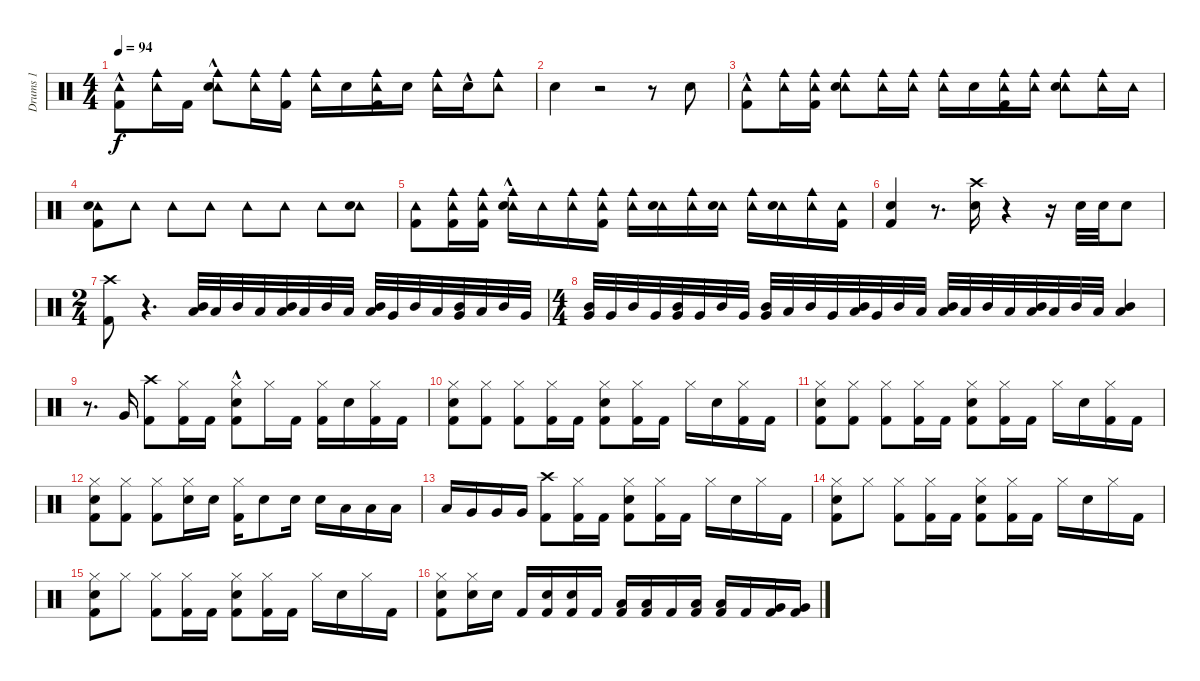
\track ("Drums 1" "Drums 1") {instrument percussion}
\staff {score}
\articulation defaults
\ts (4 4)
\tempo 94
\clef neutral
\ks c
("Tambourine (hit)" "Kick (hit) 2"{hac}).8{dy f} ("Cowbell medium (hit)" "Tambourine (hit)").16 "Kick (hit) 2".16 ("Cowbell medium (hit)" "Tambourine (hit)" "Snare (hit) 2"{hac}).8 ("Cowbell medium (hit)" "Tambourine (hit)").16 ("Cowbell medium (hit)" "Kick (hit) 2").16 ("Cowbell medium (hit)" "Tambourine (hit)").16 "Electric Snare (hit)".16 ("Cowbell medium (hit)" "Tambourine (hit)" "Kick (hit) 2").16 "Snare (hit) 2".16 ("Cowbell medium (hit)" "Tambourine (hit)").16 "Snare (hit) 2"{hac}.16 ("Cowbell medium (hit)" "Tambourine (hit)").8 |
"Electric Snare (hit)".4 r.2 r.8 "Snare (hit) 2".8 |
("Tambourine (hit)" "Kick (hit) 2"{hac}).8 ("Cowbell medium (hit)" "Tambourine (hit)").16 ("Cowbell medium (hit)" "Tambourine (hit)" "Kick (hit) 2").16 ("Cowbell medium (hit)" "Tambourine (hit)" "Snare (hit) 2").8 ("Cowbell medium (hit)" "Tambourine (hit)").16 ("Cowbell medium (hit)" "Tambourine (hit)").16 ("Cowbell medium (hit)" "Tambourine (hit)").16 "Snare (hit) 2".16 ("Cowbell medium (hit)" "Tambourine (hit)" "Kick (hit) 2").16 ("Cowbell medium (hit)" "Tambourine (hit)").16 ("Cowbell medium (hit)" "Tambourine (hit)" "Snare (hit) 2").8 ("Cowbell medium (hit)" "Tambourine (hit)").16 "Tambourine (hit)".16 |
("Tambourine (hit)" "Kick (hit) 2" "Snare (hit) 2").8 "Tambourine (hit)".8 "Tambourine (hit)".8 "Tambourine (hit)".8 "Tambourine (hit)".8 "Tambourine (hit)".8 "Tambourine (hit)".8 ("Tambourine (hit)" "Snare (hit) 2").8 |
("Tambourine (hit)" "Kick (hit) 2").8 ("Cowbell medium (hit)" "Tambourine (hit)" "Kick (hit) 2").16 ("Cowbell medium (hit)" "Tambourine (hit)" "Kick (hit) 2").16 ("Cowbell medium (hit)" "Tambourine (hit)" "Snare (hit) 2"{hac}).16 "Tambourine (hit)".16 ("Cowbell medium (hit)" "Tambourine (hit)").16 ("Cowbell medium (hit)" "Tambourine (hit)" "Kick (hit) 2").16 ("Cowbell medium (hit)" "Tambourine (hit)").16 ("Tambourine (hit)" "Snare (hit) 2").16 ("Cowbell medium (hit)" "Tambourine (hit)").16 ("Tambourine (hit)" "Snare (hit) 2").16 ("Cowbell medium (hit)" "Tambourine (hit)").16 ("Tambourine (hit)" "Snare (hit) 2").16 ("Cowbell medium (hit)" "Tambourine (hit)").16 ("Tambourine (hit)" "Kick (hit) 2").16 |
("Kick (hit) 2" "Snare (hit) 2").4 r.8{d} ("Crash high (hit)" "Snare (hit) 2").16 r.4 r.16 "Snare (hit) 2".32 "Snare (hit) 2".32 "Electric Snare (hit)".8 |
\ts (2 4)
("Kick (hit) 2" "Crash high (hit)").8 r.4{d} ("Mid Tom (hit)" "Low Tom (hit)").32 "Low Tom (hit)".32 "Mid Tom (hit)".32 "Low Tom (hit)".32 ("Mid Tom (hit)" "Low Tom (hit)").32 "Low Tom (hit)".32 "Mid Tom (hit)".32 "Low Tom (hit)".32 ("Mid Tom (hit)" "Low Tom (hit)").32 "Very Low Tom (hit)".32 "Mid Tom (hit)".32 "Low Tom (hit)".32 ("Mid Tom (hit)" "Very Low Tom (hit)").32 "Low Tom (hit)".32 "Mid Tom (hit)".32 "Very Low Tom (hit)".32 |
\ts (4 4)
("Mid Tom (hit)" "Very Low Tom (hit)").32 "Very Low Tom (hit)".32 "Mid Tom (hit)".32 "Very Low Tom (hit)".32 ("Mid Tom (hit)" "Very Low Tom (hit)").32 "Very Low Tom (hit)".32 "Mid Tom (hit)".32 "Very Low Tom (hit)".32 ("Mid Tom (hit)" "Very Low Tom (hit)").32 "Low Floor Tom (hit)".32 "Mid Tom (hit)".32 "Very Low Tom (hit)".32 ("Mid Tom (hit)" "Low Floor Tom (hit)").32 "Very Low Tom (hit)".32 "Mid Tom (hit)".32 "Low Floor Tom (hit)".32 ("Mid Tom (hit)" "Low Floor Tom (hit)").32 "Low Floor Tom (hit)".32 "Mid Tom (hit)".32 "Low Floor Tom (hit)".32 ("Mid Tom (hit)" "Low Floor Tom (hit)").32 "Low Floor Tom (hit)".32 "Mid Tom (hit)".32 "Low Floor Tom (hit)".32 ("Mid Tom (hit)" "Low Floor Tom (hit)").4 |
r.8{d} "Very Low Tom (hit)".16 ("Kick (hit) 2" "Crash high (hit)").8 ("Kick (hit) 2" "Hi-Hat (closed)").16 "Kick (hit) 2".16 ("Kick (hit) 2"{hac} "Snare (hit) 2"{hac} "Hi-Hat (closed)").8 "Hi-Hat (closed)".16 "Kick (hit) 2".16 ("Kick (hit) 2" "Hi-Hat (closed)").16 "Snare (hit) 2".16 ("Kick (hit) 2" "Hi-Hat (closed)").16 "Kick (hit) 2".16 |
("Kick (hit) 2" "Snare (hit) 2" "Hi-Hat (closed)").8 ("Kick (hit) 2" "Hi-Hat (closed)").8 ("Kick (hit) 2" "Hi-Hat (closed)").8 ("Kick (hit) 2" "Hi-Hat (closed)").16 "Kick (hit) 2".16 ("Kick (hit) 2" "Snare (hit) 2" "Hi-Hat (closed)").8 ("Kick (hit) 2" "Hi-Hat (closed)").16 "Kick (hit) 2".16 "Hi-Hat (closed)".16 "Electric Snare (hit)".16 ("Kick (hit) 2" "Hi-Hat (closed)").16 "Kick (hit) 2".16 |
("Kick (hit) 2" "Snare (hit) 2" "Hi-Hat (closed)").8 ("Kick (hit) 2" "Hi-Hat (closed)").8 ("Kick (hit) 2" "Hi-Hat (closed)").8 ("Kick (hit) 2" "Hi-Hat (closed)").16 "Kick (hit) 2".16 ("Kick (hit) 2" "Snare (hit) 2" "Hi-Hat (closed)").8 ("Kick (hit) 2" "Hi-Hat (closed)").16 "Kick (hit) 2".16 "Hi-Hat (closed)".16 "Electric Snare (hit)".16 ("Kick (hit) 2" "Hi-Hat (closed)").16 "Kick (hit) 2".16 |
("Kick (hit) 2" "Snare (hit) 2" "Hi-Hat (closed)").8 ("Kick (hit) 2" "Hi-Hat (closed)").8 ("Kick (hit) 2" "Hi-Hat (closed)").8 ("Snare (hit) 2" "Hi-Hat (closed)").16 "Electric Snare (hit)".16 ("Kick (hit) 2" "Hi-Hat (closed)").16 "Electric Snare (hit)".8 "Snare (hit) 2".16 "Electric Snare (hit)".16 "Low Tom (hit)".16 "Low Tom (hit)".16 "Low Tom (hit)".16 |
"Low Tom (hit)".16 "Very Low Tom (hit)".16 "Very Low Tom (hit)".16 "Very Low Tom (hit)".16 ("Kick (hit) 2" "Crash high (hit)").8 ("Kick (hit) 2" "Hi-Hat (closed)").16 "Kick (hit) 2".16 ("Kick (hit) 2" "Snare (hit) 2" "Hi-Hat (closed)").8 ("Kick (hit) 2" "Hi-Hat (closed)").16 "Kick (hit) 2".16 "Hi-Hat (closed)".16 "Snare (hit) 2".16 "Hi-Hat (closed)".16 "Kick (hit) 2".16 |
("Kick (hit) 2" "Snare (hit) 2" "Hi-Hat (closed)").8 "Hi-Hat (closed)".8 ("Kick (hit) 2" "Hi-Hat (closed)").8 ("Kick (hit) 2" "Hi-Hat (closed)").16 "Kick (hit) 2".16 ("Kick (hit) 2" "Snare (hit) 2" "Hi-Hat (closed)").8 ("Kick (hit) 2" "Hi-Hat (closed)").16 "Kick (hit) 2".16 "Hi-Hat (closed)".16 "Snare (hit) 2".16 "Hi-Hat (closed)".16 "Kick (hit) 2".16 |
("Kick (hit) 2" "Snare (hit) 2" "Hi-Hat (closed)").8 "Hi-Hat (closed)".8 ("Kick (hit) 2" "Hi-Hat (closed)").8 ("Kick (hit) 2" "Hi-Hat (closed)").16 "Kick (hit) 2".16 ("Kick (hit) 2" "Snare (hit) 2" "Hi-Hat (closed)").8 ("Kick (hit) 2" "Hi-Hat (closed)").16 "Kick (hit) 2".16 "Hi-Hat (closed)".16 "Snare (hit) 2".16 "Hi-Hat (closed)".16 "Kick (hit) 2".16 |
("Kick (hit) 2" "Snare (hit) 2" "Hi-Hat (closed)").8 ("Electric Snare (hit)" "Hi-Hat (closed)").16 "Electric Snare (hit)".16 "Kick (hit) 2".16 ("Electric Snare (hit)" "Kick (hit) 2").16 ("Kick (hit) 2" "Snare (hit) 2").16 "Kick (hit) 2".16 ("Kick (hit) 2" "Low Tom (hit)").16 ("Kick (hit) 2" "Low Tom (hit)").16 "Kick (hit) 2".16 ("Kick (hit) 2" "Low Tom (hit)").16 ("Kick (hit) 2" "Low Tom (hit)").16 "Kick (hit) 2".16 ("Kick (hit) 2" "Very Low Tom (hit)").16 ("Kick (hit) 2" "Very Low Tom (hit)").16
